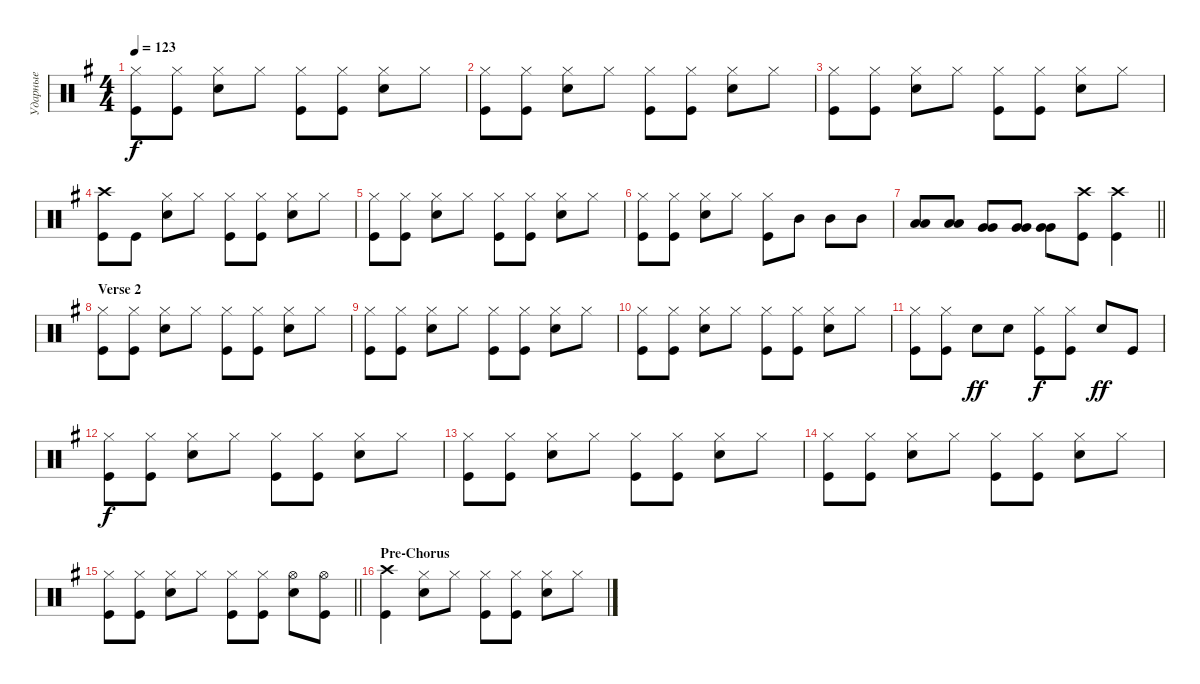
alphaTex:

\track ("Ударные" "Ударные") {instrument percussion}
\staff {score}
\articulation defaults
\ts (4 4)
\tempo 123
\clef neutral
\ks eminor
("Hi-Hat (closed)" "Kick (hit)").8{dy f} ("Hi-Hat (closed)" "Kick (hit)").8 ("Snare (hit) 2" "Hi-Hat (closed)").8 "Hi-Hat (closed)".8 ("Hi-Hat (closed)" "Kick (hit)").8 ("Hi-Hat (closed)" "Kick (hit)").8 ("Hi-Hat (closed)" "Snare (hit) 2").8 "Hi-Hat (closed)".8 |
("Hi-Hat (closed)" "Kick (hit)").8 ("Hi-Hat (closed)" "Kick (hit)").8 ("Snare (hit) 2" "Hi-Hat (closed)").8 "Hi-Hat (closed)".8 ("Hi-Hat (closed)" "Kick (hit)").8 ("Hi-Hat (closed)" "Kick (hit)").8 ("Hi-Hat (closed)" "Snare (hit) 2").8 "Hi-Hat (closed)".8 |
("Hi-Hat (closed)" "Kick (hit)").8 ("Hi-Hat (closed)" "Kick (hit)").8 ("Snare (hit) 2" "Hi-Hat (closed)").8 "Hi-Hat (closed)".8 ("Hi-Hat (closed)" "Kick (hit)").8 ("Hi-Hat (closed)" "Kick (hit)").8 ("Hi-Hat (closed)" "Snare (hit) 2").8 "Hi-Hat (closed)".8 |
("Crash high (hit)" "Kick (hit)").8 "Kick (hit)".8 ("Snare (hit) 2" "Hi-Hat (closed)").8 "Hi-Hat (closed)".8 ("Hi-Hat (closed)" "Kick (hit)").8 ("Hi-Hat (closed)" "Kick (hit)").8 ("Hi-Hat (closed)" "Snare (hit) 2").8 "Hi-Hat (closed)".8 |
("Hi-Hat (closed)" "Kick (hit)").8 ("Hi-Hat (closed)" "Kick (hit)").8 ("Snare (hit) 2" "Hi-Hat (closed)").8 "Hi-Hat (closed)".8 ("Hi-Hat (closed)" "Kick (hit)").8 ("Hi-Hat (closed)" "Kick (hit)").8 ("Hi-Hat (closed)" "Snare (hit) 2").8 "Hi-Hat (closed)".8 |
("Hi-Hat (closed)" "Kick (hit)").8 ("Hi-Hat (closed)" "Kick (hit)").8 ("Snare (hit) 2" "Hi-Hat (closed)").8 "Hi-Hat (closed)".8 ("Hi-Hat (closed)" "Kick (hit)").8 "Mid Tom (hit)".8 "Mid Tom (hit)".8 "Mid Tom (hit)".8 |
\barLineRight lightlight
("Low Tom (hit)" "Low Tom (hit)").8{bd 120} ("Low Tom (hit)" "Low Tom (hit)").8{bd 120} ("Very Low Tom (hit)" "Very Low Tom (hit)").8{bd 120} ("Very Low Tom (hit)" "Very Low Tom (hit)").8{bd 120} ("Very Low Tom (hit)" "Very Low Tom (hit)").8{bd 120} ("Kick (hit)" "Crash high (hit)").8 ("Kick (hit)" "Crash high (hit)").4 |
\section ("" "Verse 2")
("Hi-Hat (closed)" "Kick (hit)").8 ("Hi-Hat (closed)" "Kick (hit)").8 ("Snare (hit) 2" "Hi-Hat (closed)").8 "Hi-Hat (closed)".8 ("Hi-Hat (closed)" "Kick (hit)").8 ("Hi-Hat (closed)" "Kick (hit)").8 ("Hi-Hat (closed)" "Snare (hit) 2").8 "Hi-Hat (closed)".8 |
("Hi-Hat (closed)" "Kick (hit)").8 ("Hi-Hat (closed)" "Kick (hit)").8 ("Snare (hit) 2" "Hi-Hat (closed)").8 "Hi-Hat (closed)".8 ("Hi-Hat (closed)" "Kick (hit)").8 ("Hi-Hat (closed)" "Kick (hit)").8 ("Hi-Hat (closed)" "Snare (hit) 2").8 "Hi-Hat (closed)".8 |
("Hi-Hat (closed)" "Kick (hit)").8 ("Hi-Hat (closed)" "Kick (hit)").8 ("Snare (hit) 2" "Hi-Hat (closed)").8 "Hi-Hat (closed)".8 ("Hi-Hat (closed)" "Kick (hit)").8 ("Hi-Hat (closed)" "Kick (hit)").8 ("Hi-Hat (closed)" "Snare (hit) 2").8 "Hi-Hat (closed)".8 |
("Hi-Hat (closed)" "Kick (hit)").8 ("Hi-Hat (closed)" "Kick (hit)").8 "Snare (hit) 2".8{dy ff} "Snare (hit) 2".8 ("Hi-Hat (closed)" "Kick (hit)").8{dy f} ("Hi-Hat (closed)" "Kick (hit)").8 "Snare (hit) 2".8{dy ff} "Kick (hit)".8 |
("Hi-Hat (closed)" "Kick (hit)").8{dy f} ("Hi-Hat (closed)" "Kick (hit)").8 ("Snare (hit) 2" "Hi-Hat (closed)").8 "Hi-Hat (closed)".8 ("Hi-Hat (closed)" "Kick (hit)").8 ("Hi-Hat (closed)" "Kick (hit)").8 ("Hi-Hat (closed)" "Snare (hit) 2").8 "Hi-Hat (closed)".8 |
("Hi-Hat (closed)" "Kick (hit)").8 ("Hi-Hat (closed)" "Kick (hit)").8 ("Snare (hit) 2" "Hi-Hat (closed)").8 "Hi-Hat (closed)".8 ("Hi-Hat (closed)" "Kick (hit)").8 ("Hi-Hat (closed)" "Kick (hit)").8 ("Hi-Hat (closed)" "Snare (hit) 2").8 "Hi-Hat (closed)".8 |
("Hi-Hat (closed)" "Kick (hit)").8 ("Hi-Hat (closed)" "Kick (hit)").8 ("Snare (hit) 2" "Hi-Hat (closed)").8 "Hi-Hat (closed)".8 ("Hi-Hat (closed)" "Kick (hit)").8 ("Hi-Hat (closed)" "Kick (hit)").8 ("Hi-Hat (closed)" "Snare (hit) 2").8 "Hi-Hat (closed)".8 |
\barLineRight lightlight
("Hi-Hat (closed)" "Kick (hit)").8 ("Hi-Hat (closed)" "Kick (hit)").8 ("Snare (hit) 2" "Hi-Hat (closed)").8 "Hi-Hat (closed)".8 ("Hi-Hat (closed)" "Kick (hit)").8 ("Hi-Hat (closed)" "Kick (hit)").8 ("Hi-Hat (open)" "Snare (hit) 2").8 ("Hi-Hat (open)" "Kick (hit)").8 |
\section ("" "Pre-Chorus")
("Crash high (hit)" "Kick (hit)").4 ("Snare (hit) 2" "Hi-Hat (closed)").8 "Hi-Hat (closed)".8 ("Hi-Hat (closed)" "Kick (hit)").8 ("Hi-Hat (closed)" "Kick (hit)").8 ("Hi-Hat (closed)" "Snare (hit) 2").8 "Hi-Hat (closed)".8
